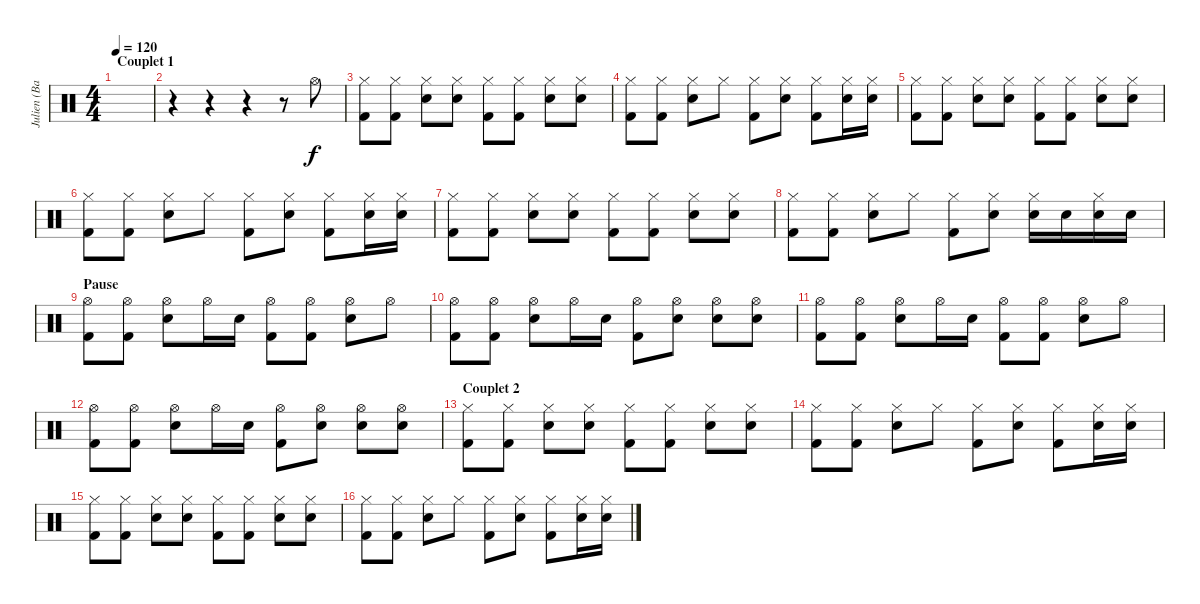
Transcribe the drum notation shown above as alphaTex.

\track ("Julien (Batterie)" "Julien (Ba") {instrument percussion}
\staff {score}
\articulation defaults
\ts (4 4)
\section ("" "Couplet 1")
\tempo 120
\clef neutral
\ks c
|
r.4 r.4 r.4 r.8 "Hi-Hat (open)".8 |
("Hi-Hat (closed)" "Kick (hit) 2").8 ("Hi-Hat (closed)" "Kick (hit) 2").8 ("Hi-Hat (closed)" "Electric Snare (hit)").8 ("Hi-Hat (closed)" "Electric Snare (hit)").8 ("Hi-Hat (closed)" "Kick (hit) 2").8 ("Hi-Hat (closed)" "Kick (hit) 2").8 ("Hi-Hat (closed)" "Electric Snare (hit)").8 ("Hi-Hat (closed)" "Electric Snare (hit)").8 |
("Hi-Hat (closed)" "Kick (hit) 2").8 ("Hi-Hat (closed)" "Kick (hit) 2").8 ("Hi-Hat (closed)" "Electric Snare (hit)").8 "Hi-Hat (closed)".8 ("Hi-Hat (closed)" "Kick (hit) 2").8 ("Hi-Hat (closed)" "Electric Snare (hit)").8 ("Hi-Hat (closed)" "Kick (hit) 2").8 ("Hi-Hat (closed)" "Electric Snare (hit)").16 ("Hi-Hat (closed)" "Electric Snare (hit)").16 |
("Hi-Hat (closed)" "Kick (hit) 2").8 ("Hi-Hat (closed)" "Kick (hit) 2").8 ("Hi-Hat (closed)" "Electric Snare (hit)").8 ("Hi-Hat (closed)" "Electric Snare (hit)").8 ("Hi-Hat (closed)" "Kick (hit) 2").8 ("Hi-Hat (closed)" "Kick (hit) 2").8 ("Hi-Hat (closed)" "Electric Snare (hit)").8 ("Hi-Hat (closed)" "Electric Snare (hit)").8 |
("Hi-Hat (closed)" "Kick (hit) 2").8 ("Hi-Hat (closed)" "Kick (hit) 2").8 ("Hi-Hat (closed)" "Electric Snare (hit)").8 "Hi-Hat (closed)".8 ("Hi-Hat (closed)" "Kick (hit) 2").8 ("Hi-Hat (closed)" "Electric Snare (hit)").8 ("Hi-Hat (closed)" "Kick (hit) 2").8 ("Hi-Hat (closed)" "Electric Snare (hit)").16 ("Hi-Hat (closed)" "Electric Snare (hit)").16 |
("Hi-Hat (closed)" "Kick (hit) 2").8 ("Hi-Hat (closed)" "Kick (hit) 2").8 ("Hi-Hat (closed)" "Electric Snare (hit)").8 ("Hi-Hat (closed)" "Electric Snare (hit)").8 ("Hi-Hat (closed)" "Kick (hit) 2").8 ("Hi-Hat (closed)" "Kick (hit) 2").8 ("Hi-Hat (closed)" "Electric Snare (hit)").8 ("Hi-Hat (closed)" "Electric Snare (hit)").8 |
("Hi-Hat (closed)" "Kick (hit) 2").8 ("Hi-Hat (closed)" "Kick (hit) 2").8 ("Hi-Hat (closed)" "Electric Snare (hit)").8 "Hi-Hat (closed)".8 ("Hi-Hat (closed)" "Kick (hit) 2").8 ("Hi-Hat (closed)" "Electric Snare (hit)").8 ("Hi-Hat (closed)" "Electric Snare (hit)").16 "Electric Snare (hit)".16 ("Hi-Hat (closed)" "Electric Snare (hit)").16 "Electric Snare (hit)".16 |
\section ("" "Pause")
("Hi-Hat (open)" "Kick (hit) 2").8 ("Hi-Hat (open)" "Kick (hit) 2").8 ("Hi-Hat (open)" "Electric Snare (hit)").8 "Hi-Hat (open)".16 "Electric Snare (hit)".16 ("Hi-Hat (open)" "Kick (hit) 2").8 ("Hi-Hat (open)" "Kick (hit) 2").8 ("Hi-Hat (open)" "Electric Snare (hit)").8 "Hi-Hat (open)".8 |
("Hi-Hat (open)" "Kick (hit) 2").8 ("Hi-Hat (open)" "Kick (hit) 2").8 ("Hi-Hat (open)" "Electric Snare (hit)").8 "Hi-Hat (open)".16 "Electric Snare (hit)".16 ("Hi-Hat (open)" "Kick (hit) 2").8 ("Hi-Hat (open)" "Electric Snare (hit)").8 ("Hi-Hat (open)" "Electric Snare (hit)").8 ("Hi-Hat (open)" "Electric Snare (hit)").8 |
("Hi-Hat (open)" "Kick (hit) 2").8 ("Hi-Hat (open)" "Kick (hit) 2").8 ("Hi-Hat (open)" "Electric Snare (hit)").8 "Hi-Hat (open)".16 "Electric Snare (hit)".16 ("Hi-Hat (open)" "Kick (hit) 2").8 ("Hi-Hat (open)" "Kick (hit) 2").8 ("Hi-Hat (open)" "Electric Snare (hit)").8 "Hi-Hat (open)".8 |
("Hi-Hat (open)" "Kick (hit) 2").8 ("Hi-Hat (open)" "Kick (hit) 2").8 ("Hi-Hat (open)" "Electric Snare (hit)").8 "Hi-Hat (open)".16 "Electric Snare (hit)".16 ("Hi-Hat (open)" "Kick (hit) 2").8 ("Hi-Hat (open)" "Electric Snare (hit)").8 ("Hi-Hat (open)" "Electric Snare (hit)").8 ("Hi-Hat (open)" "Electric Snare (hit)").8 |
\section ("" "Couplet 2")
("Hi-Hat (closed)" "Kick (hit) 2").8 ("Hi-Hat (closed)" "Kick (hit) 2").8 ("Hi-Hat (closed)" "Electric Snare (hit)").8 ("Hi-Hat (closed)" "Electric Snare (hit)").8 ("Hi-Hat (closed)" "Kick (hit) 2").8 ("Hi-Hat (closed)" "Kick (hit) 2").8 ("Hi-Hat (closed)" "Electric Snare (hit)").8 ("Hi-Hat (closed)" "Electric Snare (hit)").8 |
("Hi-Hat (closed)" "Kick (hit) 2").8 ("Hi-Hat (closed)" "Kick (hit) 2").8 ("Hi-Hat (closed)" "Electric Snare (hit)").8 "Hi-Hat (closed)".8 ("Hi-Hat (closed)" "Kick (hit) 2").8 ("Hi-Hat (closed)" "Electric Snare (hit)").8 ("Hi-Hat (closed)" "Kick (hit) 2").8 ("Hi-Hat (closed)" "Electric Snare (hit)").16 ("Hi-Hat (closed)" "Electric Snare (hit)").16 |
("Hi-Hat (closed)" "Kick (hit) 2").8 ("Hi-Hat (closed)" "Kick (hit) 2").8 ("Hi-Hat (closed)" "Electric Snare (hit)").8 ("Hi-Hat (closed)" "Electric Snare (hit)").8 ("Hi-Hat (closed)" "Kick (hit) 2").8 ("Hi-Hat (closed)" "Kick (hit) 2").8 ("Hi-Hat (closed)" "Electric Snare (hit)").8 ("Hi-Hat (closed)" "Electric Snare (hit)").8 |
("Hi-Hat (closed)" "Kick (hit) 2").8 ("Hi-Hat (closed)" "Kick (hit) 2").8 ("Hi-Hat (closed)" "Electric Snare (hit)").8 "Hi-Hat (closed)".8 ("Hi-Hat (closed)" "Kick (hit) 2").8 ("Hi-Hat (closed)" "Electric Snare (hit)").8 ("Hi-Hat (closed)" "Kick (hit) 2").8 ("Hi-Hat (closed)" "Electric Snare (hit)").16 ("Hi-Hat (closed)" "Electric Snare (hit)").16
